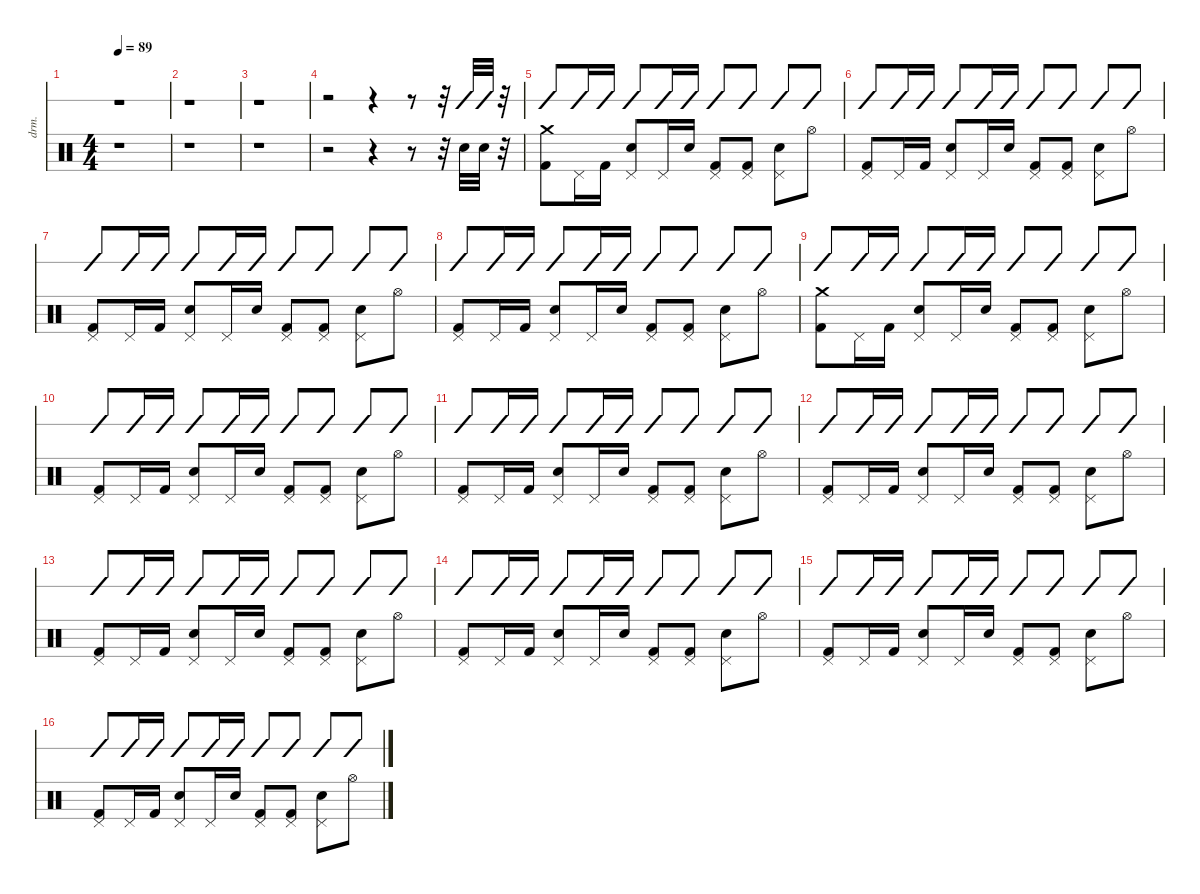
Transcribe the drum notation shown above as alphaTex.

\defaultSystemsLayout 4
\hideDynamics
\bracketExtendMode nobrackets
\otherSystemsTrackNameOrientation horizontal
\track ("Drumkit" "drm.") {instrument percussion}
\staff {score slash}
\articulation defaults
\ts (4 4)
\tempo 89
\clef neutral
\ks c
r.1{dy f beam Down} |
r.1{beam Down} |
r.1{beam Down} |
r.2{beam Down} r.4{beam Down} r.8{beam Down} r.32{beam Down} "Snare (hit) 2".32{beam Down} "Snare (hit) 2".32{beam Down} r.32{beam Down} |
("Crash medium (hit)" "Kick (hit) 2").8{beam Down} "Pedal Hi-Hat (hit)".16{beam Down} "Kick (hit) 2".16{beam Down} ("Snare (hit) 2" "Pedal Hi-Hat (hit)").8{beam Up} "Pedal Hi-Hat (hit)".16{beam Up} "Snare (hit) 2".16{beam Up} ("Pedal Hi-Hat (hit)" "Kick (hit) 2").8{beam Up} ("Pedal Hi-Hat (hit)" "Kick (hit) 2").8{beam Up} ("Pedal Hi-Hat (hit)" "Snare (hit) 2").8{beam Down} "Hi-Hat (open)".8{beam Down} |
("Pedal Hi-Hat (hit)" "Kick (hit) 2").8{beam Up} "Pedal Hi-Hat (hit)".16{beam Up} "Kick (hit) 2".16{beam Up} ("Pedal Hi-Hat (hit)" "Snare (hit) 2").8{beam Up} "Pedal Hi-Hat (hit)".16{beam Up} "Snare (hit) 2".16{beam Up} ("Pedal Hi-Hat (hit)" "Kick (hit) 2").8{beam Up} ("Pedal Hi-Hat (hit)" "Kick (hit) 2").8{beam Up} ("Pedal Hi-Hat (hit)" "Snare (hit) 2").8{beam Down} "Hi-Hat (open)".8{beam Down} |
("Pedal Hi-Hat (hit)" "Kick (hit) 2").8{beam Up} "Pedal Hi-Hat (hit)".16{beam Up} "Kick (hit) 2".16{beam Up} ("Pedal Hi-Hat (hit)" "Snare (hit) 2").8{beam Up} "Pedal Hi-Hat (hit)".16{beam Up} "Snare (hit) 2".16{beam Up} ("Pedal Hi-Hat (hit)" "Kick (hit) 2").8{beam Up} ("Pedal Hi-Hat (hit)" "Kick (hit) 2").8{beam Up} ("Pedal Hi-Hat (hit)" "Snare (hit) 2").8{beam Down} "Hi-Hat (open)".8{beam Down} |
("Pedal Hi-Hat (hit)" "Kick (hit) 2").8{beam Up} "Pedal Hi-Hat (hit)".16{beam Up} "Kick (hit) 2".16{beam Up} ("Pedal Hi-Hat (hit)" "Snare (hit) 2").8{beam Up} "Pedal Hi-Hat (hit)".16{beam Up} "Snare (hit) 2".16{beam Up} ("Pedal Hi-Hat (hit)" "Kick (hit) 2").8{beam Up} ("Pedal Hi-Hat (hit)" "Kick (hit) 2").8{beam Up} ("Pedal Hi-Hat (hit)" "Snare (hit) 2").8{beam Down} "Hi-Hat (open)".8{beam Down} |
("Crash medium (hit)" "Kick (hit) 2").8{beam Down} "Pedal Hi-Hat (hit)".16{beam Down} "Kick (hit) 2".16{beam Down} ("Pedal Hi-Hat (hit)" "Snare (hit) 2").8{beam Up} "Pedal Hi-Hat (hit)".16{beam Up} "Snare (hit) 2".16{beam Up} ("Pedal Hi-Hat (hit)" "Kick (hit) 2").8{beam Up} ("Pedal Hi-Hat (hit)" "Kick (hit) 2").8{beam Up} ("Pedal Hi-Hat (hit)" "Snare (hit) 2").8{beam Down} "Hi-Hat (open)".8{beam Down} |
("Pedal Hi-Hat (hit)" "Kick (hit) 2").8{beam Up} "Pedal Hi-Hat (hit)".16{beam Up} "Kick (hit) 2".16{beam Up} ("Pedal Hi-Hat (hit)" "Snare (hit) 2").8{beam Up} "Pedal Hi-Hat (hit)".16{beam Up} "Snare (hit) 2".16{beam Up} ("Pedal Hi-Hat (hit)" "Kick (hit) 2").8{beam Up} ("Pedal Hi-Hat (hit)" "Kick (hit) 2").8{beam Up} ("Pedal Hi-Hat (hit)" "Snare (hit) 2").8{beam Down} "Hi-Hat (open)".8{beam Down} |
("Pedal Hi-Hat (hit)" "Kick (hit) 2").8{beam Up} "Pedal Hi-Hat (hit)".16{beam Up} "Kick (hit) 2".16{beam Up} ("Pedal Hi-Hat (hit)" "Snare (hit) 2").8{beam Up} "Pedal Hi-Hat (hit)".16{beam Up} "Snare (hit) 2".16{beam Up} ("Pedal Hi-Hat (hit)" "Kick (hit) 2").8{beam Up} ("Pedal Hi-Hat (hit)" "Kick (hit) 2").8{beam Up} ("Pedal Hi-Hat (hit)" "Snare (hit) 2").8{beam Down} "Hi-Hat (open)".8{beam Down} |
("Pedal Hi-Hat (hit)" "Kick (hit) 2").8{beam Up} "Pedal Hi-Hat (hit)".16{beam Up} "Kick (hit) 2".16{beam Up} ("Pedal Hi-Hat (hit)" "Snare (hit) 2").8{beam Up} "Pedal Hi-Hat (hit)".16{beam Up} "Snare (hit) 2".16{beam Up} ("Pedal Hi-Hat (hit)" "Kick (hit) 2").8{beam Up} ("Pedal Hi-Hat (hit)" "Kick (hit) 2").8{beam Up} ("Pedal Hi-Hat (hit)" "Snare (hit) 2").8{beam Down} "Hi-Hat (open)".8{beam Down} |
("Pedal Hi-Hat (hit)" "Kick (hit) 2").8{beam Up} "Pedal Hi-Hat (hit)".16{beam Up} "Kick (hit) 2".16{beam Up} ("Pedal Hi-Hat (hit)" "Snare (hit) 2").8{beam Up} "Pedal Hi-Hat (hit)".16{beam Up} "Snare (hit) 2".16{beam Up} ("Pedal Hi-Hat (hit)" "Kick (hit) 2").8{beam Up} ("Pedal Hi-Hat (hit)" "Kick (hit) 2").8{beam Up} ("Pedal Hi-Hat (hit)" "Snare (hit) 2").8{beam Down} "Hi-Hat (open)".8{beam Down} |
("Pedal Hi-Hat (hit)" "Kick (hit) 2").8{beam Up} "Pedal Hi-Hat (hit)".16{beam Up} "Kick (hit) 2".16{beam Up} ("Pedal Hi-Hat (hit)" "Snare (hit) 2").8{beam Up} "Pedal Hi-Hat (hit)".16{beam Up} "Snare (hit) 2".16{beam Up} ("Pedal Hi-Hat (hit)" "Kick (hit) 2").8{beam Up} ("Pedal Hi-Hat (hit)" "Kick (hit) 2").8{beam Up} ("Pedal Hi-Hat (hit)" "Snare (hit) 2").8{beam Down} "Hi-Hat (open)".8{beam Down} |
("Pedal Hi-Hat (hit)" "Kick (hit) 2").8{beam Up} "Pedal Hi-Hat (hit)".16{beam Up} "Kick (hit) 2".16{beam Up} ("Pedal Hi-Hat (hit)" "Snare (hit) 2").8{beam Up} "Pedal Hi-Hat (hit)".16{beam Up} "Snare (hit) 2".16{beam Up} ("Pedal Hi-Hat (hit)" "Kick (hit) 2").8{beam Up} ("Pedal Hi-Hat (hit)" "Kick (hit) 2").8{beam Up} ("Pedal Hi-Hat (hit)" "Snare (hit) 2").8{beam Down} "Hi-Hat (open)".8{beam Down} |
("Pedal Hi-Hat (hit)" "Kick (hit) 2").8{beam Up} "Pedal Hi-Hat (hit)".16{beam Up} "Kick (hit) 2".16{beam Up} ("Pedal Hi-Hat (hit)" "Snare (hit) 2").8{beam Up} "Pedal Hi-Hat (hit)".16{beam Up} "Snare (hit) 2".16{beam Up} ("Pedal Hi-Hat (hit)" "Kick (hit) 2").8{beam Up} ("Pedal Hi-Hat (hit)" "Kick (hit) 2").8{beam Up} ("Pedal Hi-Hat (hit)" "Snare (hit) 2").8{beam Down} "Hi-Hat (open)".8{beam Down}
